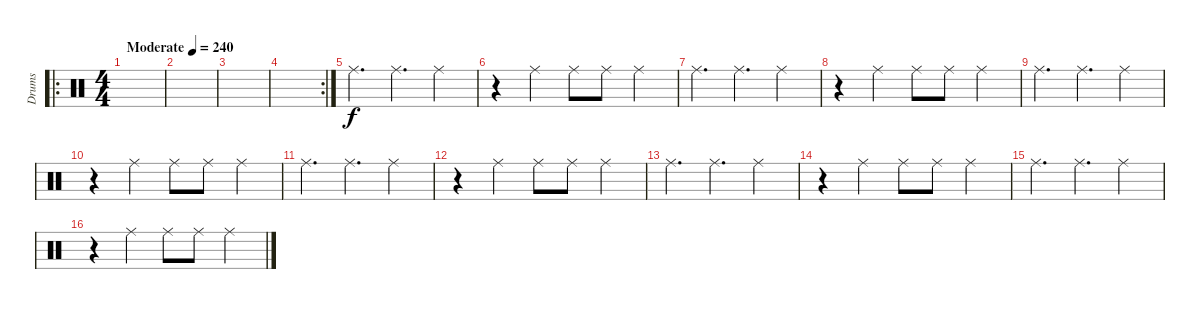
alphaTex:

\track ("Drums" "Drums") {instrument percussion}
\staff {score}
\articulation defaults
\ro
\ts (4 4)
\tempo (240 "Moderate")
\clef neutral
\ks c
|
|
|
\rc 2
|
"Ride (middle)".4{d} "Ride (middle)".4{d} "Ride (middle)".4 |
r.4 "Ride (middle)".4 "Ride (middle)".8 "Ride (middle)".8 "Ride (middle)".4 |
"Ride (middle)".4{d} "Ride (middle)".4{d} "Ride (middle)".4 |
r.4 "Ride (middle)".4 "Ride (middle)".8 "Ride (middle)".8 "Ride (middle)".4 |
"Ride (middle)".4{d} "Ride (middle)".4{d} "Ride (middle)".4 |
r.4 "Ride (middle)".4 "Ride (middle)".8 "Ride (middle)".8 "Ride (middle)".4 |
"Ride (middle)".4{d} "Ride (middle)".4{d} "Ride (middle)".4 |
r.4 "Ride (middle)".4 "Ride (middle)".8 "Ride (middle)".8 "Ride (middle)".4 |
"Ride (middle)".4{d} "Ride (middle)".4{d} "Ride (middle)".4 |
r.4 "Ride (middle)".4 "Ride (middle)".8 "Ride (middle)".8 "Ride (middle)".4 |
"Ride (middle)".4{d} "Ride (middle)".4{d} "Ride (middle)".4 |
r.4 "Ride (middle)".4 "Ride (middle)".8 "Ride (middle)".8 "Ride (middle)".4
